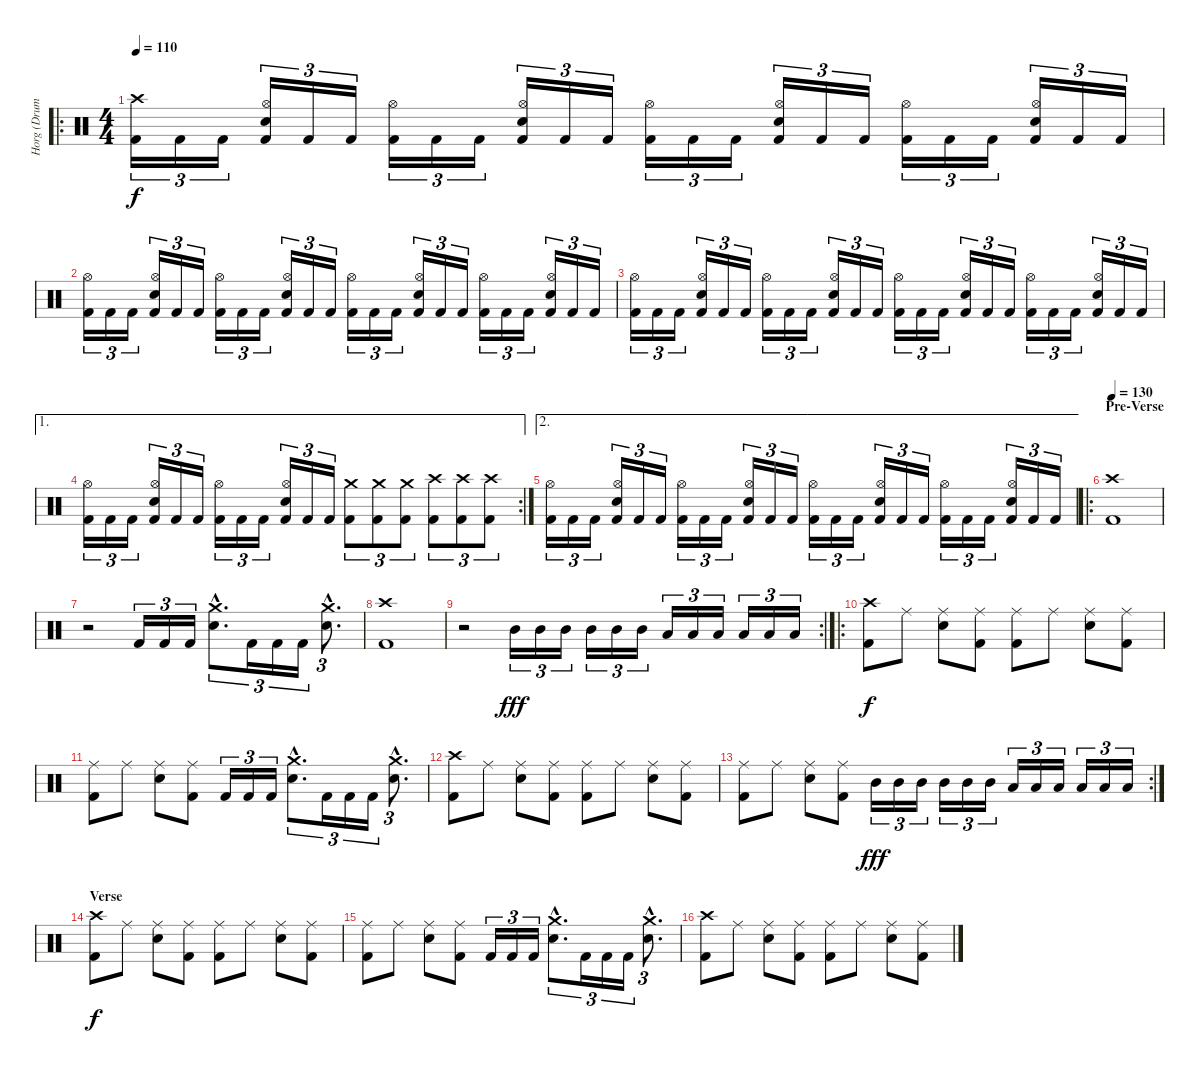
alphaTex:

\track ("Horg (Drums)" "Horg (Drum") {instrument percussion}
\staff {score}
\articulation defaults
\ro
\ts (4 4)
\tempo 110
\clef neutral
\ks c
("Crash high (hit)" "Kick (hit) 2").16{tu (3 2) dy f} "Kick (hit) 2".16{tu (3 2)} "Kick (hit) 2".16{tu (3 2)} ("Hi-Hat (open)" "Electric Snare (hit)" "Kick (hit) 2").16{tu (3 2)} "Kick (hit) 2".16{tu (3 2)} "Kick (hit) 2".16{tu (3 2)} ("Hi-Hat (open)" "Kick (hit) 2").16{tu (3 2)} "Kick (hit) 2".16{tu (3 2)} "Kick (hit) 2".16{tu (3 2)} ("Hi-Hat (open)" "Electric Snare (hit)" "Kick (hit) 2").16{tu (3 2)} "Kick (hit) 2".16{tu (3 2)} "Kick (hit) 2".16{tu (3 2)} ("Hi-Hat (open)" "Kick (hit) 2").16{tu (3 2)} "Kick (hit) 2".16{tu (3 2)} "Kick (hit) 2".16{tu (3 2)} ("Hi-Hat (open)" "Electric Snare (hit)" "Kick (hit) 2").16{tu (3 2)} "Kick (hit) 2".16{tu (3 2)} "Kick (hit) 2".16{tu (3 2)} ("Hi-Hat (open)" "Kick (hit) 2").16{tu (3 2)} "Kick (hit) 2".16{tu (3 2)} "Kick (hit) 2".16{tu (3 2)} ("Hi-Hat (open)" "Electric Snare (hit)" "Kick (hit) 2").16{tu (3 2)} "Kick (hit) 2".16{tu (3 2)} "Kick (hit) 2".16{tu (3 2)} |
("Hi-Hat (open)" "Kick (hit) 2").16{tu (3 2)} "Kick (hit) 2".16{tu (3 2)} "Kick (hit) 2".16{tu (3 2)} ("Hi-Hat (open)" "Electric Snare (hit)" "Kick (hit) 2").16{tu (3 2)} "Kick (hit) 2".16{tu (3 2)} "Kick (hit) 2".16{tu (3 2)} ("Hi-Hat (open)" "Kick (hit) 2").16{tu (3 2)} "Kick (hit) 2".16{tu (3 2)} "Kick (hit) 2".16{tu (3 2)} ("Hi-Hat (open)" "Electric Snare (hit)" "Kick (hit) 2").16{tu (3 2)} "Kick (hit) 2".16{tu (3 2)} "Kick (hit) 2".16{tu (3 2)} ("Hi-Hat (open)" "Kick (hit) 2").16{tu (3 2)} "Kick (hit) 2".16{tu (3 2)} "Kick (hit) 2".16{tu (3 2)} ("Hi-Hat (open)" "Electric Snare (hit)" "Kick (hit) 2").16{tu (3 2)} "Kick (hit) 2".16{tu (3 2)} "Kick (hit) 2".16{tu (3 2)} ("Hi-Hat (open)" "Kick (hit) 2").16{tu (3 2)} "Kick (hit) 2".16{tu (3 2)} "Kick (hit) 2".16{tu (3 2)} ("Hi-Hat (open)" "Electric Snare (hit)" "Kick (hit) 2").16{tu (3 2)} "Kick (hit) 2".16{tu (3 2)} "Kick (hit) 2".16{tu (3 2)} |
("Hi-Hat (open)" "Kick (hit) 2").16{tu (3 2)} "Kick (hit) 2".16{tu (3 2)} "Kick (hit) 2".16{tu (3 2)} ("Hi-Hat (open)" "Electric Snare (hit)" "Kick (hit) 2").16{tu (3 2)} "Kick (hit) 2".16{tu (3 2)} "Kick (hit) 2".16{tu (3 2)} ("Hi-Hat (open)" "Kick (hit) 2").16{tu (3 2)} "Kick (hit) 2".16{tu (3 2)} "Kick (hit) 2".16{tu (3 2)} ("Hi-Hat (open)" "Electric Snare (hit)" "Kick (hit) 2").16{tu (3 2)} "Kick (hit) 2".16{tu (3 2)} "Kick (hit) 2".16{tu (3 2)} ("Hi-Hat (open)" "Kick (hit) 2").16{tu (3 2)} "Kick (hit) 2".16{tu (3 2)} "Kick (hit) 2".16{tu (3 2)} ("Hi-Hat (open)" "Electric Snare (hit)" "Kick (hit) 2").16{tu (3 2)} "Kick (hit) 2".16{tu (3 2)} "Kick (hit) 2".16{tu (3 2)} ("Hi-Hat (open)" "Kick (hit) 2").16{tu (3 2)} "Kick (hit) 2".16{tu (3 2)} "Kick (hit) 2".16{tu (3 2)} ("Hi-Hat (open)" "Electric Snare (hit)" "Kick (hit) 2").16{tu (3 2)} "Kick (hit) 2".16{tu (3 2)} "Kick (hit) 2".16{tu (3 2)} |
\ae 1
\rc 2
("Hi-Hat (open)" "Kick (hit) 2").16{tu (3 2)} "Kick (hit) 2".16{tu (3 2)} "Kick (hit) 2".16{tu (3 2)} ("Hi-Hat (open)" "Electric Snare (hit)" "Kick (hit) 2").16{tu (3 2)} "Kick (hit) 2".16{tu (3 2)} "Kick (hit) 2".16{tu (3 2)} ("Hi-Hat (open)" "Kick (hit) 2").16{tu (3 2)} "Kick (hit) 2".16{tu (3 2)} "Kick (hit) 2".16{tu (3 2)} ("Hi-Hat (open)" "Electric Snare (hit)" "Kick (hit) 2").16{tu (3 2)} "Kick (hit) 2".16{tu (3 2)} "Kick (hit) 2".16{tu (3 2)} ("Crash medium (hit)" "Kick (hit) 2").8{tu (3 2)} ("Crash medium (hit)" "Kick (hit) 2").8{tu (3 2)} ("Crash medium (hit)" "Kick (hit) 2").8{tu (3 2)} ("Crash high (hit)" "Kick (hit) 2").8{tu (3 2)} ("Crash high (hit)" "Kick (hit) 2").8{tu (3 2)} ("Crash high (hit)" "Kick (hit) 2").8{tu (3 2)} |
\ae 2
("Hi-Hat (open)" "Kick (hit) 2").16{tu (3 2)} "Kick (hit) 2".16{tu (3 2)} "Kick (hit) 2".16{tu (3 2)} ("Hi-Hat (open)" "Electric Snare (hit)" "Kick (hit) 2").16{tu (3 2)} "Kick (hit) 2".16{tu (3 2)} "Kick (hit) 2".16{tu (3 2)} ("Hi-Hat (open)" "Kick (hit) 2").16{tu (3 2)} "Kick (hit) 2".16{tu (3 2)} "Kick (hit) 2".16{tu (3 2)} ("Hi-Hat (open)" "Electric Snare (hit)" "Kick (hit) 2").16{tu (3 2)} "Kick (hit) 2".16{tu (3 2)} "Kick (hit) 2".16{tu (3 2)} ("Hi-Hat (open)" "Kick (hit) 2").16{tu (3 2)} "Kick (hit) 2".16{tu (3 2)} "Kick (hit) 2".16{tu (3 2)} ("Hi-Hat (open)" "Electric Snare (hit)" "Kick (hit) 2").16{tu (3 2)} "Kick (hit) 2".16{tu (3 2)} "Kick (hit) 2".16{tu (3 2)} ("Hi-Hat (open)" "Kick (hit) 2").16{tu (3 2)} "Kick (hit) 2".16{tu (3 2)} "Kick (hit) 2".16{tu (3 2)} ("Hi-Hat (open)" "Electric Snare (hit)" "Kick (hit) 2").16{tu (3 2)} "Kick (hit) 2".16{tu (3 2)} "Kick (hit) 2".16{tu (3 2)} |
\ro
\section ("" "Pre-Verse")
\tempo 130
("Crash high (hit)" "Kick (hit) 2").1 |
r.2 "Kick (hit) 2".16{tu (3 2)} "Kick (hit) 2".16{tu (3 2)} "Kick (hit) 2".16{tu (3 2)} ("Crash medium (hit)"{hac} "Electric Snare (hit)"{hac}).8{d tu (3 2)} "Kick (hit) 2".16{tu (3 2)} "Kick (hit) 2".16{tu (3 2)} "Kick (hit) 2".16{tu (3 2)} ("Crash medium (hit)"{hac} "Electric Snare (hit)"{hac}).8{d tu (3 2)} |
("Crash high (hit)" "Kick (hit) 2").1 |
\rc 2
r.2 "Mid Tom (hit)".16{tu (3 2) dy fff} "Mid Tom (hit)".16{tu (3 2)} "Mid Tom (hit)".16{tu (3 2)} "Mid Tom (hit)".16{tu (3 2)} "Mid Tom (hit)".16{tu (3 2)} "Mid Tom (hit)".16{tu (3 2)} "Low Tom (hit)".16{tu (3 2)} "Low Tom (hit)".16{tu (3 2)} "Low Tom (hit)".16{tu (3 2)} "Low Tom (hit)".16{tu (3 2)} "Low Tom (hit)".16{tu (3 2)} "Low Tom (hit)".16{tu (3 2)} |
\ro
("Crash high (hit)" "Kick (hit) 2").8{dy f} "Ride (middle)".8 ("Ride (middle)" "Electric Snare (hit)").8 ("Ride (middle)" "Kick (hit) 2").8 ("Ride (middle)" "Kick (hit) 2").8 "Ride (middle)".8 ("Ride (middle)" "Electric Snare (hit)").8 ("Ride (middle)" "Kick (hit) 2").8 |
("Ride (middle)" "Kick (hit) 2").8 "Ride (middle)".8 ("Ride (middle)" "Electric Snare (hit)").8 ("Ride (middle)" "Kick (hit) 2").8 "Kick (hit) 2".16{tu (3 2)} "Kick (hit) 2".16{tu (3 2)} "Kick (hit) 2".16{tu (3 2)} ("Crash medium (hit)"{hac} "Electric Snare (hit)"{hac}).8{d tu (3 2)} "Kick (hit) 2".16{tu (3 2)} "Kick (hit) 2".16{tu (3 2)} "Kick (hit) 2".16{tu (3 2)} ("Crash medium (hit)"{hac} "Electric Snare (hit)"{hac}).8{d tu (3 2)} |
("Crash high (hit)" "Kick (hit) 2").8 "Ride (middle)".8 ("Ride (middle)" "Electric Snare (hit)").8 ("Ride (middle)" "Kick (hit) 2").8 ("Ride (middle)" "Kick (hit) 2").8 "Ride (middle)".8 ("Ride (middle)" "Electric Snare (hit)").8 ("Ride (middle)" "Kick (hit) 2").8 |
\rc 2
("Ride (middle)" "Kick (hit) 2").8 "Ride (middle)".8 ("Ride (middle)" "Electric Snare (hit)").8 ("Ride (middle)" "Kick (hit) 2").8 "Mid Tom (hit)".16{tu (3 2) dy fff} "Mid Tom (hit)".16{tu (3 2)} "Mid Tom (hit)".16{tu (3 2)} "Mid Tom (hit)".16{tu (3 2)} "Mid Tom (hit)".16{tu (3 2)} "Mid Tom (hit)".16{tu (3 2)} "Low Tom (hit)".16{tu (3 2)} "Low Tom (hit)".16{tu (3 2)} "Low Tom (hit)".16{tu (3 2)} "Low Tom (hit)".16{tu (3 2)} "Low Tom (hit)".16{tu (3 2)} "Low Tom (hit)".16{tu (3 2)} |
\section ("" "Verse")
("Crash high (hit)" "Kick (hit) 2").8{dy f} "Ride (middle)".8 ("Ride (middle)" "Electric Snare (hit)").8 ("Ride (middle)" "Kick (hit) 2").8 ("Ride (middle)" "Kick (hit) 2").8 "Ride (middle)".8 ("Ride (middle)" "Electric Snare (hit)").8 ("Ride (middle)" "Kick (hit) 2").8 |
("Ride (middle)" "Kick (hit) 2").8 "Ride (middle)".8 ("Ride (middle)" "Electric Snare (hit)").8 ("Ride (middle)" "Kick (hit) 2").8 "Kick (hit) 2".16{tu (3 2)} "Kick (hit) 2".16{tu (3 2)} "Kick (hit) 2".16{tu (3 2)} ("Crash medium (hit)"{hac} "Electric Snare (hit)"{hac}).8{d tu (3 2)} "Kick (hit) 2".16{tu (3 2)} "Kick (hit) 2".16{tu (3 2)} "Kick (hit) 2".16{tu (3 2)} ("Crash medium (hit)"{hac} "Electric Snare (hit)"{hac}).8{d tu (3 2)} |
("Crash high (hit)" "Kick (hit) 2").8 "Ride (middle)".8 ("Ride (middle)" "Electric Snare (hit)").8 ("Ride (middle)" "Kick (hit) 2").8 ("Ride (middle)" "Kick (hit) 2").8 "Ride (middle)".8 ("Ride (middle)" "Electric Snare (hit)").8 ("Ride (middle)" "Kick (hit) 2").8
